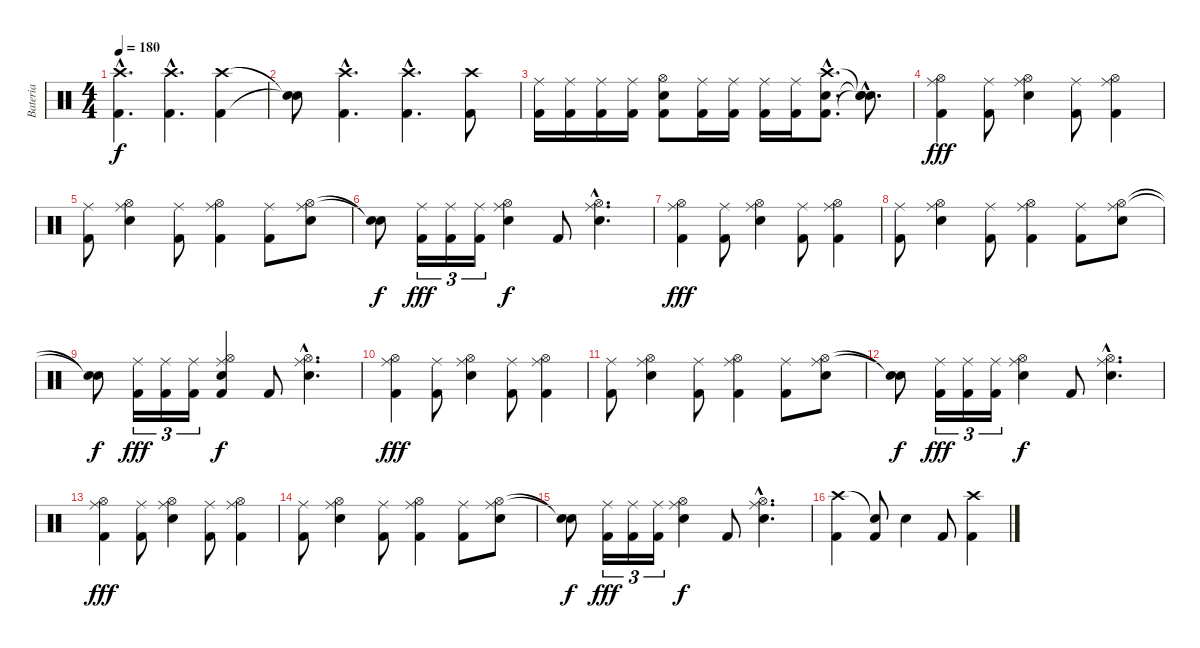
\track ("Bateria" "Bateria") {instrument percussion}
\staff {score}
\articulation defaults
\ts (4 4)
\tempo 180
\clef neutral
\ks c
("Crash high (hit)"{hac} "Kick (hit) 2"{hac}).4{d dy f} ("Crash high (hit)"{hac} "Kick (hit) 2"{hac}).4{d} ("Crash high (hit)" "Kick (hit) 2").4 |
("Snare (hit)"{t} "Snare (hit)"{t}).8 ("Crash high (hit)"{hac} "Kick (hit) 2"{hac}).4{d} ("Crash high (hit)"{hac} "Kick (hit) 2"{hac}).4{d} ("Crash high (hit)" "Kick (hit) 2").8 |
("Ride (middle)" "Kick (hit) 2").16 ("Ride (middle)" "Kick (hit) 2").16 ("Ride (middle)" "Kick (hit) 2").16 ("Ride (middle)" "Kick (hit) 2").16 ("Hi-Hat (open)" "Electric Snare (hit)" "Kick (hit) 2").8 ("Ride (middle)" "Kick (hit) 2").16 ("Ride (middle)" "Kick (hit) 2").16 ("Ride (middle)" "Kick (hit) 2").16 ("Ride (middle)" "Kick (hit) 2").16 ("Crash high (hit)"{hac} "Electric Snare (hit)"{hac} "Kick (hit) 2"{hac}).8{d} ("Snare (hit)"{hac t} "Snare (hit)"{hac t} "Snare (hit)"{hac t}).8{d} |
("Hi-Hat (open)" "Ride (middle)" "Kick (hit) 2").4{dy fff} ("Ride (middle)" "Kick (hit) 2").8 ("Hi-Hat (open)" "Ride (middle)" "Electric Snare (hit)").4 ("Ride (middle)" "Kick (hit) 2").8 ("Hi-Hat (open)" "Ride (middle)" "Kick (hit) 2").4 |
("Ride (middle)" "Kick (hit) 2").8 ("Hi-Hat (open)" "Ride (middle)" "Electric Snare (hit)").4 ("Ride (middle)" "Kick (hit) 2").8 ("Hi-Hat (open)" "Ride (middle)" "Kick (hit) 2").4 ("Ride (middle)" "Kick (hit) 2").8 ("Hi-Hat (open)" "Ride (middle)" "Electric Snare (hit)").8 |
("Snare (hit)"{t} "Snare (hit)"{t}).8{dy f} ("Ride (middle)" "Kick (hit) 2").16{tu (3 2) dy fff} ("Ride (middle)" "Kick (hit) 2").16{tu (3 2)} ("Ride (middle)" "Kick (hit) 2").16{tu (3 2)} ("Hi-Hat (open)" "Ride (middle)" "Electric Snare (hit)").4{dy f} "Kick (hit) 2".8 ("Hi-Hat (open)"{hac} "Ride (middle)"{hac} "Electric Snare (hit)"{hac}).4{d} |
("Hi-Hat (open)" "Ride (middle)" "Kick (hit) 2").4{dy fff} ("Ride (middle)" "Kick (hit) 2").8 ("Hi-Hat (open)" "Ride (middle)" "Electric Snare (hit)").4 ("Ride (middle)" "Kick (hit) 2").8 ("Hi-Hat (open)" "Ride (middle)" "Kick (hit) 2").4 |
("Ride (middle)" "Kick (hit) 2").8 ("Hi-Hat (open)" "Ride (middle)" "Electric Snare (hit)").4 ("Ride (middle)" "Kick (hit) 2").8 ("Hi-Hat (open)" "Ride (middle)" "Kick (hit) 2").4 ("Ride (middle)" "Kick (hit) 2").8 ("Hi-Hat (open)" "Ride (middle)" "Electric Snare (hit)").8 |
("Snare (hit)"{t} "Snare (hit)"{t}).8{dy f} ("Ride (middle)" "Kick (hit) 2").16{tu (3 2) dy fff} ("Ride (middle)" "Kick (hit) 2").16{tu (3 2)} ("Ride (middle)" "Kick (hit) 2").16{tu (3 2)} ("Hi-Hat (open)" "Ride (middle)" "Electric Snare (hit)" "Kick (hit) 2").4{dy f} "Kick (hit) 2".8 ("Hi-Hat (open)"{hac} "Ride (middle)"{hac} "Electric Snare (hit)"{hac}).4{d} |
("Hi-Hat (open)" "Ride (middle)" "Kick (hit) 2").4{dy fff} ("Ride (middle)" "Kick (hit) 2").8 ("Hi-Hat (open)" "Ride (middle)" "Electric Snare (hit)").4 ("Ride (middle)" "Kick (hit) 2").8 ("Hi-Hat (open)" "Ride (middle)" "Kick (hit) 2").4 |
("Ride (middle)" "Kick (hit) 2").8 ("Hi-Hat (open)" "Ride (middle)" "Electric Snare (hit)").4 ("Ride (middle)" "Kick (hit) 2").8 ("Hi-Hat (open)" "Ride (middle)" "Kick (hit) 2").4 ("Ride (middle)" "Kick (hit) 2").8 ("Hi-Hat (open)" "Ride (middle)" "Electric Snare (hit)").8 |
("Snare (hit)"{t} "Snare (hit)"{t}).8{dy f} ("Ride (middle)" "Kick (hit) 2").16{tu (3 2) dy fff} ("Ride (middle)" "Kick (hit) 2").16{tu (3 2)} ("Ride (middle)" "Kick (hit) 2").16{tu (3 2)} ("Hi-Hat (open)" "Ride (middle)" "Electric Snare (hit)").4{dy f} "Kick (hit) 2".8 ("Hi-Hat (open)"{hac} "Ride (middle)"{hac} "Electric Snare (hit)"{hac}).4{d} |
("Hi-Hat (open)" "Ride (middle)" "Kick (hit) 2").4{dy fff} ("Ride (middle)" "Kick (hit) 2").8 ("Hi-Hat (open)" "Ride (middle)" "Electric Snare (hit)").4 ("Ride (middle)" "Kick (hit) 2").8 ("Hi-Hat (open)" "Ride (middle)" "Kick (hit) 2").4 |
("Ride (middle)" "Kick (hit) 2").8 ("Hi-Hat (open)" "Ride (middle)" "Electric Snare (hit)").4 ("Ride (middle)" "Kick (hit) 2").8 ("Hi-Hat (open)" "Ride (middle)" "Kick (hit) 2").4 ("Ride (middle)" "Kick (hit) 2").8 ("Hi-Hat (open)" "Ride (middle)" "Electric Snare (hit)").8 |
("Snare (hit)"{t} "Snare (hit)"{t}).8{dy f} ("Ride (middle)" "Kick (hit) 2").16{tu (3 2) dy fff} ("Ride (middle)" "Kick (hit) 2").16{tu (3 2)} ("Ride (middle)" "Kick (hit) 2").16{tu (3 2)} ("Hi-Hat (open)" "Ride (middle)" "Electric Snare (hit)").4{dy f} "Kick (hit) 2".8 ("Hi-Hat (open)"{hac} "Ride (middle)"{hac} "Electric Snare (hit)"{hac}).4{d} |
("Crash high (hit)" "Kick (hit) 2").4 ("Snare (hit) 2"{t} "Kick (hit) 2").8 "Electric Snare (hit)".4 "Kick (hit) 2".8 ("Crash high (hit)" "Kick (hit) 2").4
